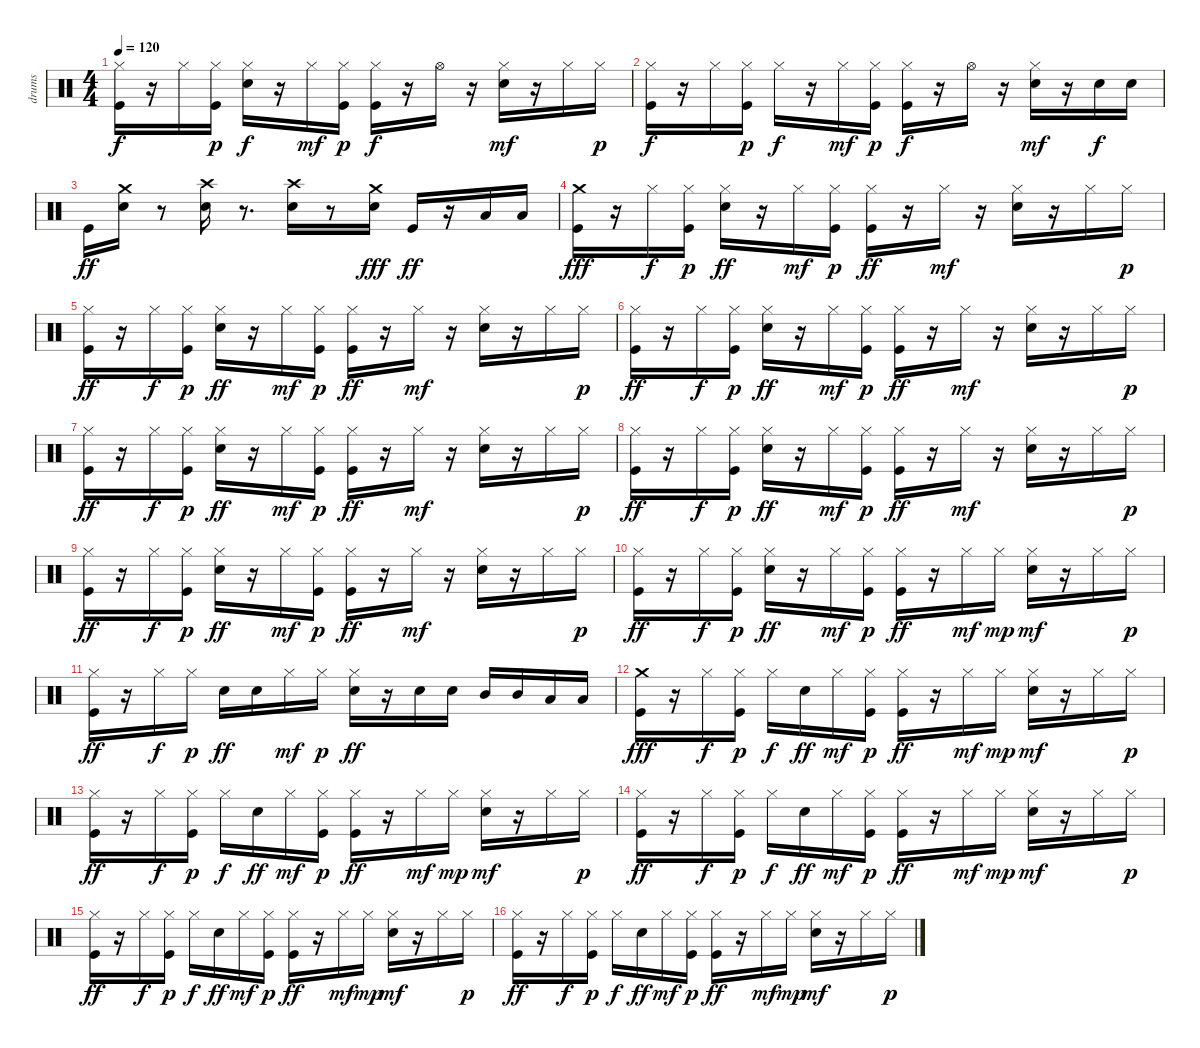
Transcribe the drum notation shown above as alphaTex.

\track ("drums" "drums") {instrument percussion}
\staff {score}
\articulation defaults
\ts (4 4)
\tempo 120
\clef neutral
\ks c
("Kick (hit)" "Hi-Hat (closed)").16{dy f} r.16 "Hi-Hat (closed)".16 ("Kick (hit)" "Hi-Hat (closed)").16{dy p} ("Electric Snare (hit)" "Hi-Hat (closed)").16{dy f} r.16 "Hi-Hat (closed)".16{dy mf} ("Kick (hit)" "Hi-Hat (closed)").16{dy p} ("Kick (hit)" "Hi-Hat (closed)").16{dy f} r.16 "Hi-Hat (open)".16 r.16 ("Electric Snare (hit)" "Hi-Hat (closed)").16{dy mf} r.16 "Hi-Hat (closed)".16 "Hi-Hat (closed)".16{dy p} |
("Kick (hit)" "Hi-Hat (closed)").16{dy f} r.16 "Hi-Hat (closed)".16 ("Kick (hit)" "Hi-Hat (closed)").16{dy p} "Hi-Hat (closed)".16{dy f} r.16 "Hi-Hat (closed)".16{dy mf} ("Kick (hit)" "Hi-Hat (closed)").16{dy p} ("Kick (hit)" "Hi-Hat (closed)").16{dy f} r.16 "Hi-Hat (open)".16 r.16 ("Electric Snare (hit)" "Hi-Hat (closed)").16{dy mf} r.16 "Electric Snare (hit)".16{dy f} "Electric Snare (hit)".16 |
"Kick (hit)".16{dy ff} ("Electric Snare (hit)" "Crash medium (hit)").16 r.8 ("Electric Snare (hit)" "Crash high (hit)").16 r.8{d} ("Electric Snare (hit)" "Crash high (hit)").16 r.8 ("Electric Snare (hit)" "Crash medium (hit)").16{dy fff} "Kick (hit)".16{dy ff} r.16 "Low Tom (hit)".16 "Low Tom (hit)".16 |
("Kick (hit)" "Crash medium (hit)").16{dy fff} r.16 "Hi-Hat (closed)".16{dy f} ("Kick (hit)" "Hi-Hat (closed)").16{dy p} ("Electric Snare (hit)" "Hi-Hat (closed)").16{dy ff} r.16 "Hi-Hat (closed)".16{dy mf} ("Kick (hit)" "Hi-Hat (closed)").16{dy p} ("Kick (hit)" "Hi-Hat (closed)").16{dy ff} r.16 "Hi-Hat (closed)".16{dy mf} r.16 ("Electric Snare (hit)" "Hi-Hat (closed)").16 r.16 "Hi-Hat (closed)".16 "Hi-Hat (closed)".16{dy p} |
("Kick (hit)" "Hi-Hat (closed)").16{dy ff} r.16 "Hi-Hat (closed)".16{dy f} ("Kick (hit)" "Hi-Hat (closed)").16{dy p} ("Electric Snare (hit)" "Hi-Hat (closed)").16{dy ff} r.16 "Hi-Hat (closed)".16{dy mf} ("Kick (hit)" "Hi-Hat (closed)").16{dy p} ("Kick (hit)" "Hi-Hat (closed)").16{dy ff} r.16 "Hi-Hat (closed)".16{dy mf} r.16 ("Electric Snare (hit)" "Hi-Hat (closed)").16 r.16 "Hi-Hat (closed)".16 "Hi-Hat (closed)".16{dy p} |
("Kick (hit)" "Hi-Hat (closed)").16{dy ff} r.16 "Hi-Hat (closed)".16{dy f} ("Kick (hit)" "Hi-Hat (closed)").16{dy p} ("Electric Snare (hit)" "Hi-Hat (closed)").16{dy ff} r.16 "Hi-Hat (closed)".16{dy mf} ("Kick (hit)" "Hi-Hat (closed)").16{dy p} ("Kick (hit)" "Hi-Hat (closed)").16{dy ff} r.16 "Hi-Hat (closed)".16{dy mf} r.16 ("Electric Snare (hit)" "Hi-Hat (closed)").16 r.16 "Hi-Hat (closed)".16 "Hi-Hat (closed)".16{dy p} |
("Kick (hit)" "Hi-Hat (closed)").16{dy ff} r.16 "Hi-Hat (closed)".16{dy f} ("Kick (hit)" "Hi-Hat (closed)").16{dy p} ("Electric Snare (hit)" "Hi-Hat (closed)").16{dy ff} r.16 "Hi-Hat (closed)".16{dy mf} ("Kick (hit)" "Hi-Hat (closed)").16{dy p} ("Kick (hit)" "Hi-Hat (closed)").16{dy ff} r.16 "Hi-Hat (closed)".16{dy mf} r.16 ("Electric Snare (hit)" "Hi-Hat (closed)").16 r.16 "Hi-Hat (closed)".16 "Hi-Hat (closed)".16{dy p} |
("Kick (hit)" "Hi-Hat (closed)").16{dy ff} r.16 "Hi-Hat (closed)".16{dy f} ("Kick (hit)" "Hi-Hat (closed)").16{dy p} ("Electric Snare (hit)" "Hi-Hat (closed)").16{dy ff} r.16 "Hi-Hat (closed)".16{dy mf} ("Kick (hit)" "Hi-Hat (closed)").16{dy p} ("Kick (hit)" "Hi-Hat (closed)").16{dy ff} r.16 "Hi-Hat (closed)".16{dy mf} r.16 ("Electric Snare (hit)" "Hi-Hat (closed)").16 r.16 "Hi-Hat (closed)".16 "Hi-Hat (closed)".16{dy p} |
("Kick (hit)" "Hi-Hat (closed)").16{dy ff} r.16 "Hi-Hat (closed)".16{dy f} ("Kick (hit)" "Hi-Hat (closed)").16{dy p} ("Electric Snare (hit)" "Hi-Hat (closed)").16{dy ff} r.16 "Hi-Hat (closed)".16{dy mf} ("Kick (hit)" "Hi-Hat (closed)").16{dy p} ("Kick (hit)" "Hi-Hat (closed)").16{dy ff} r.16 "Hi-Hat (closed)".16{dy mf} r.16 ("Electric Snare (hit)" "Hi-Hat (closed)").16 r.16 "Hi-Hat (closed)".16 "Hi-Hat (closed)".16{dy p} |
("Kick (hit)" "Hi-Hat (closed)").16{dy ff} r.16 "Hi-Hat (closed)".16{dy f} ("Kick (hit)" "Hi-Hat (closed)").16{dy p} ("Electric Snare (hit)" "Hi-Hat (closed)").16{dy ff} r.16 "Hi-Hat (closed)".16{dy mf} ("Kick (hit)" "Hi-Hat (closed)").16{dy p} ("Kick (hit)" "Hi-Hat (closed)").16{dy ff} r.16 "Hi-Hat (closed)".16{dy mf} "Hi-Hat (closed)".16{dy mp} ("Electric Snare (hit)" "Hi-Hat (closed)").16{dy mf} r.16 "Hi-Hat (closed)".16 "Hi-Hat (closed)".16{dy p} |
("Kick (hit)" "Hi-Hat (closed)").16{dy ff} r.16 "Hi-Hat (closed)".16{dy f} "Hi-Hat (closed)".16{dy p} "Electric Snare (hit)".16{dy ff} "Electric Snare (hit)".16 "Hi-Hat (closed)".16{dy mf} "Hi-Hat (closed)".16{dy p} ("Electric Snare (hit)" "Hi-Hat (closed)").16{dy ff} r.16 "Electric Snare (hit)".16 "Electric Snare (hit)".16 "Mid Tom (hit)".16 "Mid Tom (hit)".16 "Low Tom (hit)".16 "Low Tom (hit)".16 |
("Kick (hit)" "Crash medium (hit)").16{dy fff} r.16 "Hi-Hat (closed)".16{dy f} ("Kick (hit)" "Hi-Hat (closed)").16{dy p} "Hi-Hat (closed)".16{dy f} "Electric Snare (hit)".16{dy ff} "Hi-Hat (closed)".16{dy mf} ("Kick (hit)" "Hi-Hat (closed)").16{dy p} ("Kick (hit)" "Hi-Hat (closed)").16{dy ff} r.16 "Hi-Hat (closed)".16{dy mf} "Hi-Hat (closed)".16{dy mp} ("Electric Snare (hit)" "Hi-Hat (closed)").16{dy mf} r.16 "Hi-Hat (closed)".16 "Hi-Hat (closed)".16{dy p} |
("Kick (hit)" "Hi-Hat (closed)").16{dy ff} r.16 "Hi-Hat (closed)".16{dy f} ("Kick (hit)" "Hi-Hat (closed)").16{dy p} "Hi-Hat (closed)".16{dy f} "Electric Snare (hit)".16{dy ff} "Hi-Hat (closed)".16{dy mf} ("Kick (hit)" "Hi-Hat (closed)").16{dy p} ("Kick (hit)" "Hi-Hat (closed)").16{dy ff} r.16 "Hi-Hat (closed)".16{dy mf} "Hi-Hat (closed)".16{dy mp} ("Electric Snare (hit)" "Hi-Hat (closed)").16{dy mf} r.16 "Hi-Hat (closed)".16 "Hi-Hat (closed)".16{dy p} |
("Kick (hit)" "Hi-Hat (closed)").16{dy ff} r.16 "Hi-Hat (closed)".16{dy f} ("Kick (hit)" "Hi-Hat (closed)").16{dy p} "Hi-Hat (closed)".16{dy f} "Electric Snare (hit)".16{dy ff} "Hi-Hat (closed)".16{dy mf} ("Kick (hit)" "Hi-Hat (closed)").16{dy p} ("Kick (hit)" "Hi-Hat (closed)").16{dy ff} r.16 "Hi-Hat (closed)".16{dy mf} "Hi-Hat (closed)".16{dy mp} ("Electric Snare (hit)" "Hi-Hat (closed)").16{dy mf} r.16 "Hi-Hat (closed)".16 "Hi-Hat (closed)".16{dy p} |
("Kick (hit)" "Hi-Hat (closed)").16{dy ff} r.16 "Hi-Hat (closed)".16{dy f} ("Kick (hit)" "Hi-Hat (closed)").16{dy p} "Hi-Hat (closed)".16{dy f} "Electric Snare (hit)".16{dy ff} "Hi-Hat (closed)".16{dy mf} ("Kick (hit)" "Hi-Hat (closed)").16{dy p} ("Kick (hit)" "Hi-Hat (closed)").16{dy ff} r.16 "Hi-Hat (closed)".16{dy mf} "Hi-Hat (closed)".16{dy mp} ("Electric Snare (hit)" "Hi-Hat (closed)").16{dy mf} r.16 "Hi-Hat (closed)".16 "Hi-Hat (closed)".16{dy p} |
("Kick (hit)" "Hi-Hat (closed)").16{dy ff} r.16 "Hi-Hat (closed)".16{dy f} ("Kick (hit)" "Hi-Hat (closed)").16{dy p} "Hi-Hat (closed)".16{dy f} "Electric Snare (hit)".16{dy ff} "Hi-Hat (closed)".16{dy mf} ("Kick (hit)" "Hi-Hat (closed)").16{dy p} ("Kick (hit)" "Hi-Hat (closed)").16{dy ff} r.16 "Hi-Hat (closed)".16{dy mf} "Hi-Hat (closed)".16{dy mp} ("Electric Snare (hit)" "Hi-Hat (closed)").16{dy mf} r.16 "Hi-Hat (closed)".16 "Hi-Hat (closed)".16{dy p}
